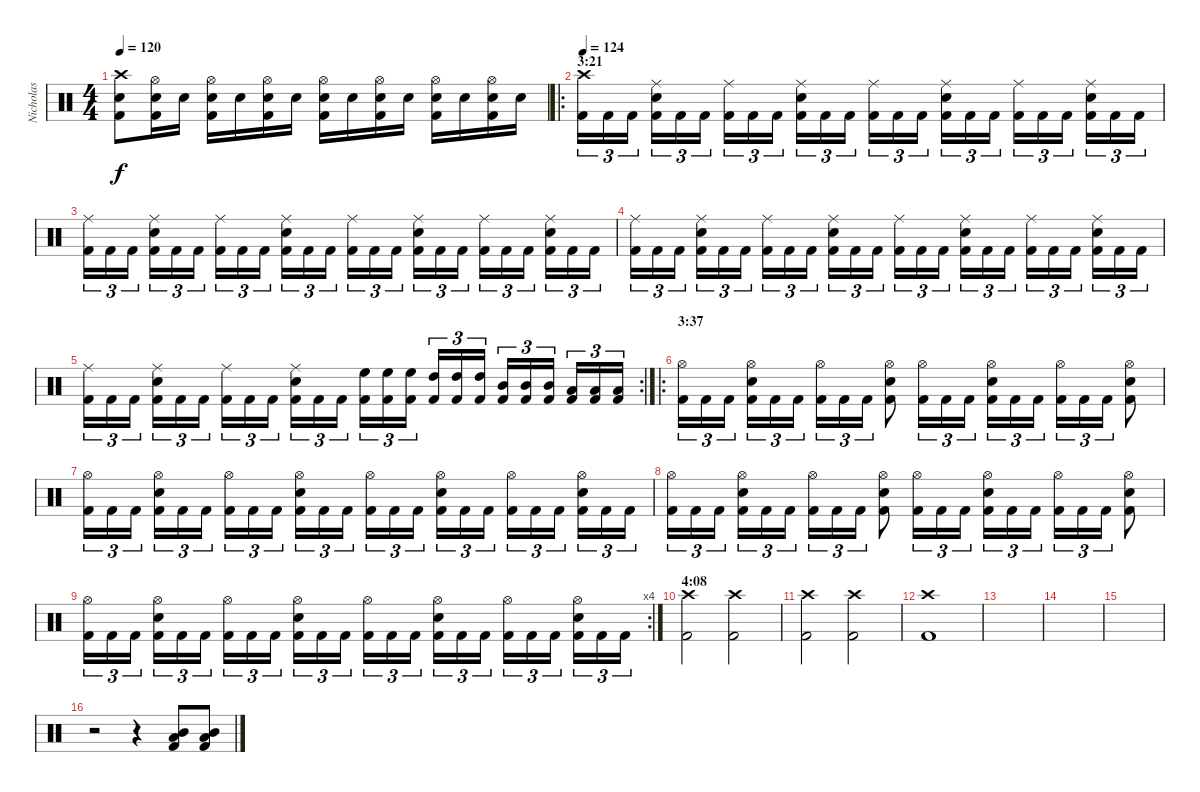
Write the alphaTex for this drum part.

\track ("Nicholas" "Nicholas") {instrument percussion}
\staff {score}
\articulation defaults
\ts (4 4)
\tempo 120
\clef neutral
\ks c
("Kick (hit) 2" "Snare (hit) 2" "Crash high (hit)").8{dy f} ("Kick (hit) 2" "Snare (hit) 2" "Hi-Hat (open)").16 "Snare (hit) 2".16 ("Kick (hit) 2" "Snare (hit) 2" "Hi-Hat (open)").16 "Snare (hit) 2".16 ("Kick (hit) 2" "Snare (hit) 2" "Hi-Hat (open)").16 "Snare (hit) 2".16 ("Kick (hit) 2" "Snare (hit) 2" "Hi-Hat (open)").16 "Snare (hit) 2".16 ("Kick (hit) 2" "Snare (hit) 2" "Hi-Hat (open)").16 "Snare (hit) 2".16 ("Kick (hit) 2" "Snare (hit) 2" "Hi-Hat (open)").16 "Snare (hit) 2".16 ("Kick (hit) 2" "Snare (hit) 2" "Hi-Hat (open)").16 "Snare (hit) 2".16 |
\ro
\section ("" "3:21")
\tempo 124
("Kick (hit) 2" "Crash high (hit)").16{tu (3 2)} "Kick (hit) 2".16{tu (3 2)} "Kick (hit) 2".16{tu (3 2)} ("Kick (hit) 2" "Snare (hit) 2" "Ride (middle)").16{tu (3 2)} "Kick (hit) 2".16{tu (3 2)} "Kick (hit) 2".16{tu (3 2)} ("Kick (hit) 2" "Ride (middle)").16{tu (3 2)} "Kick (hit) 2".16{tu (3 2)} "Kick (hit) 2".16{tu (3 2)} ("Kick (hit) 2" "Snare (hit) 2" "Ride (middle)").16{tu (3 2)} "Kick (hit) 2".16{tu (3 2)} "Kick (hit) 2".16{tu (3 2)} ("Kick (hit) 2" "Ride (middle)").16{tu (3 2)} "Kick (hit) 2".16{tu (3 2)} "Kick (hit) 2".16{tu (3 2)} ("Kick (hit) 2" "Snare (hit) 2" "Ride (middle)").16{tu (3 2)} "Kick (hit) 2".16{tu (3 2)} "Kick (hit) 2".16{tu (3 2)} ("Kick (hit) 2" "Ride (middle)").16{tu (3 2)} "Kick (hit) 2".16{tu (3 2)} "Kick (hit) 2".16{tu (3 2)} ("Kick (hit) 2" "Snare (hit) 2" "Ride (middle)").16{tu (3 2)} "Kick (hit) 2".16{tu (3 2)} "Kick (hit) 2".16{tu (3 2)} |
("Kick (hit) 2" "Ride (middle)").16{tu (3 2)} "Kick (hit) 2".16{tu (3 2)} "Kick (hit) 2".16{tu (3 2)} ("Kick (hit) 2" "Snare (hit) 2" "Ride (middle)").16{tu (3 2)} "Kick (hit) 2".16{tu (3 2)} "Kick (hit) 2".16{tu (3 2)} ("Kick (hit) 2" "Ride (middle)").16{tu (3 2)} "Kick (hit) 2".16{tu (3 2)} "Kick (hit) 2".16{tu (3 2)} ("Kick (hit) 2" "Snare (hit) 2" "Ride (middle)").16{tu (3 2)} "Kick (hit) 2".16{tu (3 2)} "Kick (hit) 2".16{tu (3 2)} ("Kick (hit) 2" "Ride (middle)").16{tu (3 2)} "Kick (hit) 2".16{tu (3 2)} "Kick (hit) 2".16{tu (3 2)} ("Kick (hit) 2" "Snare (hit) 2" "Ride (middle)").16{tu (3 2)} "Kick (hit) 2".16{tu (3 2)} "Kick (hit) 2".16{tu (3 2)} ("Kick (hit) 2" "Ride (middle)").16{tu (3 2)} "Kick (hit) 2".16{tu (3 2)} "Kick (hit) 2".16{tu (3 2)} ("Kick (hit) 2" "Snare (hit) 2" "Ride (middle)").16{tu (3 2)} "Kick (hit) 2".16{tu (3 2)} "Kick (hit) 2".16{tu (3 2)} |
("Kick (hit) 2" "Ride (middle)").16{tu (3 2)} "Kick (hit) 2".16{tu (3 2)} "Kick (hit) 2".16{tu (3 2)} ("Kick (hit) 2" "Snare (hit) 2" "Ride (middle)").16{tu (3 2)} "Kick (hit) 2".16{tu (3 2)} "Kick (hit) 2".16{tu (3 2)} ("Kick (hit) 2" "Ride (middle)").16{tu (3 2)} "Kick (hit) 2".16{tu (3 2)} "Kick (hit) 2".16{tu (3 2)} ("Kick (hit) 2" "Snare (hit) 2" "Ride (middle)").16{tu (3 2)} "Kick (hit) 2".16{tu (3 2)} "Kick (hit) 2".16{tu (3 2)} ("Kick (hit) 2" "Ride (middle)").16{tu (3 2)} "Kick (hit) 2".16{tu (3 2)} "Kick (hit) 2".16{tu (3 2)} ("Kick (hit) 2" "Snare (hit) 2" "Ride (middle)").16{tu (3 2)} "Kick (hit) 2".16{tu (3 2)} "Kick (hit) 2".16{tu (3 2)} ("Kick (hit) 2" "Ride (middle)").16{tu (3 2)} "Kick (hit) 2".16{tu (3 2)} "Kick (hit) 2".16{tu (3 2)} ("Kick (hit) 2" "Snare (hit) 2" "Ride (middle)").16{tu (3 2)} "Kick (hit) 2".16{tu (3 2)} "Kick (hit) 2".16{tu (3 2)} |
\rc 2
("Kick (hit) 2" "Ride (middle)").16{tu (3 2)} "Kick (hit) 2".16{tu (3 2)} "Kick (hit) 2".16{tu (3 2)} ("Kick (hit) 2" "Snare (hit) 2" "Ride (middle)").16{tu (3 2)} "Kick (hit) 2".16{tu (3 2)} "Kick (hit) 2".16{tu (3 2)} ("Kick (hit) 2" "Ride (middle)").16{tu (3 2)} "Kick (hit) 2".16{tu (3 2)} "Kick (hit) 2".16{tu (3 2)} ("Kick (hit) 2" "Snare (hit) 2" "Ride (middle)").16{tu (3 2)} "Kick (hit) 2".16{tu (3 2)} "Kick (hit) 2".16{tu (3 2)} ("Kick (hit) 2" "High Floor Tom (hit)").16{tu (3 2)} ("Kick (hit) 2" "High Floor Tom (hit)").16{tu (3 2)} ("Kick (hit) 2" "High Floor Tom (hit)").16{tu (3 2)} ("Kick (hit) 2" "High Tom (hit)").16{tu (3 2)} ("Kick (hit) 2" "High Tom (hit)").16{tu (3 2)} ("Kick (hit) 2" "High Tom (hit)").16{tu (3 2)} ("Kick (hit) 2" "Mid Tom (hit)").16{tu (3 2)} ("Kick (hit) 2" "Mid Tom (hit)").16{tu (3 2)} ("Kick (hit) 2" "Mid Tom (hit)").16{tu (3 2)} ("Kick (hit) 2" "Low Tom (hit)").16{tu (3 2)} ("Kick (hit) 2" "Low Tom (hit)").16{tu (3 2)} ("Kick (hit) 2" "Low Tom (hit)").16{tu (3 2)} |
\ro
\section ("" "3:37")
("Kick (hit) 2" "Hi-Hat (open)").16{tu (3 2)} "Kick (hit) 2".16{tu (3 2)} "Kick (hit) 2".16{tu (3 2)} ("Kick (hit) 2" "Snare (hit) 2" "Hi-Hat (open)").16{tu (3 2)} "Kick (hit) 2".16{tu (3 2)} "Kick (hit) 2".16{tu (3 2)} ("Kick (hit) 2" "Hi-Hat (open)").16{tu (3 2)} "Kick (hit) 2".16{tu (3 2)} "Kick (hit) 2".16{tu (3 2)} ("Kick (hit) 2" "Snare (hit) 2" "Hi-Hat (open)").8 ("Kick (hit) 2" "Hi-Hat (open)").16{tu (3 2)} "Kick (hit) 2".16{tu (3 2)} "Kick (hit) 2".16{tu (3 2)} ("Kick (hit) 2" "Snare (hit) 2" "Hi-Hat (open)").16{tu (3 2)} "Kick (hit) 2".16{tu (3 2)} "Kick (hit) 2".16{tu (3 2)} ("Kick (hit) 2" "Hi-Hat (open)").16{tu (3 2)} "Kick (hit) 2".16{tu (3 2)} "Kick (hit) 2".16{tu (3 2)} ("Kick (hit) 2" "Snare (hit) 2" "Hi-Hat (open)").8 |
("Kick (hit) 2" "Hi-Hat (open)").16{tu (3 2)} "Kick (hit) 2".16{tu (3 2)} "Kick (hit) 2".16{tu (3 2)} ("Kick (hit) 2" "Snare (hit) 2" "Hi-Hat (open)").16{tu (3 2)} "Kick (hit) 2".16{tu (3 2)} "Kick (hit) 2".16{tu (3 2)} ("Kick (hit) 2" "Hi-Hat (open)").16{tu (3 2)} "Kick (hit) 2".16{tu (3 2)} "Kick (hit) 2".16{tu (3 2)} ("Kick (hit) 2" "Snare (hit) 2" "Hi-Hat (open)").16{tu (3 2)} "Kick (hit) 2".16{tu (3 2)} "Kick (hit) 2".16{tu (3 2)} ("Kick (hit) 2" "Hi-Hat (open)").16{tu (3 2)} "Kick (hit) 2".16{tu (3 2)} "Kick (hit) 2".16{tu (3 2)} ("Kick (hit) 2" "Snare (hit) 2" "Hi-Hat (open)").16{tu (3 2)} "Kick (hit) 2".16{tu (3 2)} "Kick (hit) 2".16{tu (3 2)} ("Kick (hit) 2" "Hi-Hat (open)").16{tu (3 2)} "Kick (hit) 2".16{tu (3 2)} "Kick (hit) 2".16{tu (3 2)} ("Kick (hit) 2" "Snare (hit) 2" "Hi-Hat (open)").16{tu (3 2)} "Kick (hit) 2".16{tu (3 2)} "Kick (hit) 2".16{tu (3 2)} |
("Kick (hit) 2" "Hi-Hat (open)").16{tu (3 2)} "Kick (hit) 2".16{tu (3 2)} "Kick (hit) 2".16{tu (3 2)} ("Kick (hit) 2" "Snare (hit) 2" "Hi-Hat (open)").16{tu (3 2)} "Kick (hit) 2".16{tu (3 2)} "Kick (hit) 2".16{tu (3 2)} ("Kick (hit) 2" "Hi-Hat (open)").16{tu (3 2)} "Kick (hit) 2".16{tu (3 2)} "Kick (hit) 2".16{tu (3 2)} ("Kick (hit) 2" "Snare (hit) 2" "Hi-Hat (open)").8 ("Kick (hit) 2" "Hi-Hat (open)").16{tu (3 2)} "Kick (hit) 2".16{tu (3 2)} "Kick (hit) 2".16{tu (3 2)} ("Kick (hit) 2" "Snare (hit) 2" "Hi-Hat (open)").16{tu (3 2)} "Kick (hit) 2".16{tu (3 2)} "Kick (hit) 2".16{tu (3 2)} ("Kick (hit) 2" "Hi-Hat (open)").16{tu (3 2)} "Kick (hit) 2".16{tu (3 2)} "Kick (hit) 2".16{tu (3 2)} ("Kick (hit) 2" "Snare (hit) 2" "Hi-Hat (open)").8 |
\rc 4
("Kick (hit) 2" "Hi-Hat (open)").16{tu (3 2)} "Kick (hit) 2".16{tu (3 2)} "Kick (hit) 2".16{tu (3 2)} ("Kick (hit) 2" "Snare (hit) 2" "Hi-Hat (open)").16{tu (3 2)} "Kick (hit) 2".16{tu (3 2)} "Kick (hit) 2".16{tu (3 2)} ("Kick (hit) 2" "Hi-Hat (open)").16{tu (3 2)} "Kick (hit) 2".16{tu (3 2)} "Kick (hit) 2".16{tu (3 2)} ("Kick (hit) 2" "Snare (hit) 2" "Hi-Hat (open)").16{tu (3 2)} "Kick (hit) 2".16{tu (3 2)} "Kick (hit) 2".16{tu (3 2)} ("Kick (hit) 2" "Hi-Hat (open)").16{tu (3 2)} "Kick (hit) 2".16{tu (3 2)} "Kick (hit) 2".16{tu (3 2)} ("Kick (hit) 2" "Snare (hit) 2" "Hi-Hat (open)").16{tu (3 2)} "Kick (hit) 2".16{tu (3 2)} "Kick (hit) 2".16{tu (3 2)} ("Kick (hit) 2" "Hi-Hat (open)").16{tu (3 2)} "Kick (hit) 2".16{tu (3 2)} "Kick (hit) 2".16{tu (3 2)} ("Kick (hit) 2" "Snare (hit) 2" "Hi-Hat (open)").16{tu (3 2)} "Kick (hit) 2".16{tu (3 2)} "Kick (hit) 2".16{tu (3 2)} |
\section ("" "4:08")
("Kick (hit) 2" "Crash high (hit)").2 ("Kick (hit) 2" "Crash high (hit)").2 |
("Kick (hit) 2" "Crash high (hit)").2 ("Kick (hit) 2" "Crash high (hit)").2 |
("Kick (hit) 2" "Crash high (hit)").1 |
|
|
|
r.2 r.4 ("Kick (hit) 2" "Mid Tom (hit)" "Low Tom (hit)").8 ("Kick (hit) 2" "Mid Tom (hit)" "Low Tom (hit)").8
